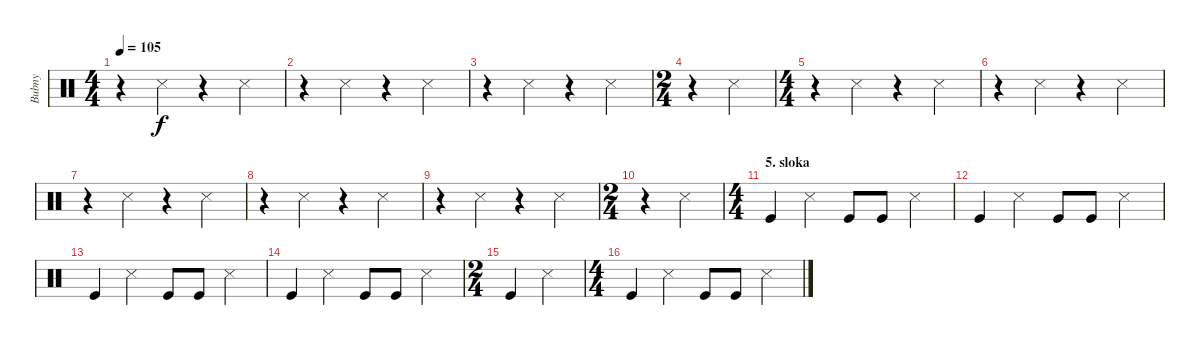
\track ("Bubny" "Bubny") {instrument percussion}
\staff {score}
\articulation defaults
\ts (4 4)
\tempo 105
\clef neutral
\ks c
r.4{dy f} "Snare (side stick) 3".4 r.4 "Snare (side stick) 3".4 |
r.4 "Snare (side stick) 3".4 r.4 "Snare (side stick) 3".4 |
r.4 "Snare (side stick) 3".4 r.4 "Snare (side stick) 3".4 |
\ts (2 4)
r.4 "Snare (side stick) 3".4 |
\ts (4 4)
r.4 "Snare (side stick) 3".4 r.4 "Snare (side stick) 3".4 |
r.4 "Snare (side stick) 3".4 r.4 "Snare (side stick) 3".4 |
r.4 "Snare (side stick) 3".4 r.4 "Snare (side stick) 3".4 |
r.4 "Snare (side stick) 3".4 r.4 "Snare (side stick) 3".4 |
r.4 "Snare (side stick) 3".4 r.4 "Snare (side stick) 3".4 |
\ts (2 4)
r.4 "Snare (side stick) 3".4 |
\ts (4 4)
\section ("" "5. sloka")
"Kick (hit)".4 "Snare (side stick) 3".4 "Kick (hit)".8 "Kick (hit)".8 "Snare (side stick) 3".4 |
"Kick (hit)".4 "Snare (side stick) 3".4 "Kick (hit)".8 "Kick (hit)".8 "Snare (side stick) 3".4 |
"Kick (hit)".4 "Snare (side stick) 3".4 "Kick (hit)".8 "Kick (hit)".8 "Snare (side stick) 3".4 |
"Kick (hit)".4 "Snare (side stick) 3".4 "Kick (hit)".8 "Kick (hit)".8 "Snare (side stick) 3".4 |
\ts (2 4)
"Kick (hit)".4 "Snare (side stick) 3".4 |
\ts (4 4)
"Kick (hit)".4 "Snare (side stick) 3".4 "Kick (hit)".8 "Kick (hit)".8 "Snare (side stick) 3".4
